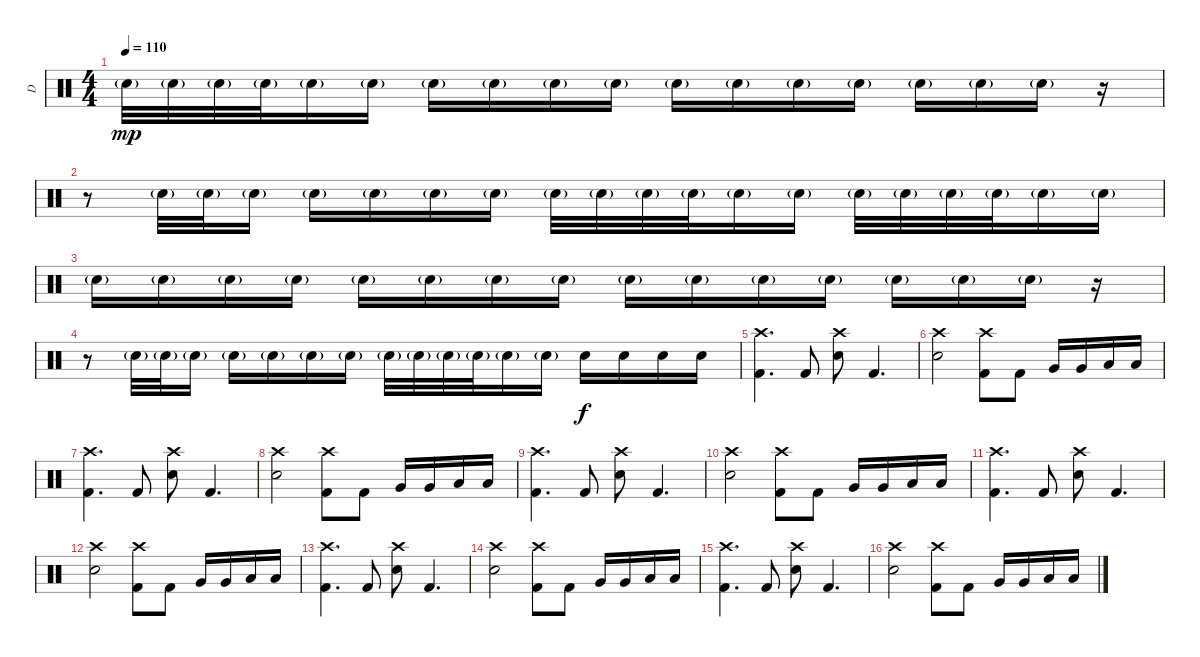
\track ("D" "D") {instrument percussion}
\staff {score}
\articulation defaults
\ts (4 4)
\tempo 110
\clef neutral
\ks c "Electric Snare (hit)"{g}.32{dy mp} "Electric Snare (hit)"{g}.32 "Electric Snare (hit)"{g}.32 "Electric Snare (hit)"{g}.32 "Electric Snare (hit)"{g}.16 "Electric Snare (hit)"{g}.16 "Electric Snare (hit)"{g}.16 "Electric Snare (hit)"{g}.16 "Electric Snare (hit)"{g}.16 "Electric Snare (hit)"{g}.16 "Electric Snare (hit)"{g}.16 "Electric Snare (hit)"{g}.16 "Electric Snare (hit)"{g}.16 "Electric Snare (hit)"{g}.16 "Electric Snare (hit)"{g}.16 "Electric Snare (hit)"{g}.16 "Electric Snare (hit)"{g}.16
r.16 |
r.8 "Electric Snare (hit)"{g}.32 "Electric Snare (hit)"{g}.32 "Electric Snare (hit)"{g}.16 "Electric Snare (hit)"{g}.16 "Electric Snare (hit)"{g}.16 "Electric Snare (hit)"{g}.16 "Electric Snare (hit)"{g}.16 "Electric Snare (hit)"{g}.32 "Electric Snare (hit)"{g}.32 "Electric Snare (hit)"{g}.32 "Electric Snare (hit)"{g}.32 "Electric Snare (hit)"{g}.16 "Electric Snare (hit)"{g}.16 "Electric Snare (hit)"{g}.32 "Electric Snare (hit)"{g}.32 "Electric Snare (hit)"{g}.32 "Electric Snare (hit)"{g}.32 "Electric Snare (hit)"{g}.16 "Electric Snare (hit)"{g}.16 |
"Electric Snare (hit)"{g}.16 "Electric Snare (hit)"{g}.16 "Electric Snare (hit)"{g}.16 "Electric Snare (hit)"{g}.16 "Electric Snare (hit)"{g}.16 "Electric Snare (hit)"{g}.16 "Electric Snare (hit)"{g}.16 "Electric Snare (hit)"{g}.16 "Electric Snare (hit)"{g}.16 "Electric Snare (hit)"{g}.16 "Electric Snare (hit)"{g}.16 "Electric Snare (hit)"{g}.16 "Electric Snare (hit)"{g}.16 "Electric Snare (hit)"{g}.16 "Electric Snare (hit)"{g}.16 r.16 |
r.8 "Electric Snare (hit)"{g}.32 "Electric Snare (hit)"{g}.32 "Electric Snare (hit)"{g}.16 "Electric Snare (hit)"{g}.16 "Electric Snare (hit)"{g}.16 "Electric Snare (hit)"{g}.16 "Electric Snare (hit)"{g}.16 "Electric Snare (hit)"{g}.32 "Electric Snare (hit)"{g}.32 "Electric Snare (hit)"{g}.32 "Electric Snare (hit)"{g}.32 "Electric Snare (hit)"{g}.16 "Electric Snare (hit)"{g}.16 "Electric Snare (hit)".16{dy f} "Electric Snare (hit)".16 "Electric Snare (hit)".16 "Electric Snare (hit)".16 |
("Crash high (hit)" "Kick (hit) 2").4{d} "Kick (hit) 2".8 ("Crash high (hit)" "Electric Snare (hit)").8 "Kick (hit) 2".4{d} |
("Crash high (hit)" "Electric Snare (hit)").2 ("Crash high (hit)" "Kick (hit) 2").8 "Kick (hit) 2".8 "Very Low Tom (hit)".16 "Very Low Tom (hit)".16 "Low Floor Tom (hit)".16 "Low Floor Tom (hit)".16 |
("Crash high (hit)" "Kick (hit) 2").4{d} "Kick (hit) 2".8 ("Crash high (hit)" "Electric Snare (hit)").8 "Kick (hit) 2".4{d} |
("Crash high (hit)" "Electric Snare (hit)").2 ("Crash high (hit)" "Kick (hit) 2").8 "Kick (hit) 2".8 "Very Low Tom (hit)".16 "Very Low Tom (hit)".16 "Low Floor Tom (hit)".16 "Low Floor Tom (hit)".16 |
("Crash high (hit)" "Kick (hit) 2").4{d} "Kick (hit) 2".8 ("Crash high (hit)" "Electric Snare (hit)").8 "Kick (hit) 2".4{d} |
("Crash high (hit)" "Electric Snare (hit)").2 ("Crash high (hit)" "Kick (hit) 2").8 "Kick (hit) 2".8 "Very Low Tom (hit)".16 "Very Low Tom (hit)".16 "Low Floor Tom (hit)".16 "Low Floor Tom (hit)".16 |
("Crash high (hit)" "Kick (hit) 2").4{d} "Kick (hit) 2".8 ("Crash high (hit)" "Electric Snare (hit)").8 "Kick (hit) 2".4{d} |
("Crash high (hit)" "Electric Snare (hit)").2 ("Crash high (hit)" "Kick (hit) 2").8 "Kick (hit) 2".8 "Very Low Tom (hit)".16 "Very Low Tom (hit)".16 "Low Floor Tom (hit)".16 "Low Floor Tom (hit)".16 |
("Crash high (hit)" "Kick (hit) 2").4{d} "Kick (hit) 2".8 ("Crash high (hit)" "Electric Snare (hit)").8 "Kick (hit) 2".4{d} |
("Crash high (hit)" "Electric Snare (hit)").2 ("Crash high (hit)" "Kick (hit) 2").8 "Kick (hit) 2".8 "Very Low Tom (hit)".16 "Very Low Tom (hit)".16 "Low Floor Tom (hit)".16 "Low Floor Tom (hit)".16 |
("Crash high (hit)" "Kick (hit) 2").4{d} "Kick (hit) 2".8 ("Crash high (hit)" "Electric Snare (hit)").8 "Kick (hit) 2".4{d} |
("Crash high (hit)" "Electric Snare (hit)").2 ("Crash high (hit)" "Kick (hit) 2").8 "Kick (hit) 2".8 "Very Low Tom (hit)".16 "Very Low Tom (hit)".16 "Low Floor Tom (hit)".16 "Low Floor Tom (hit)".16
